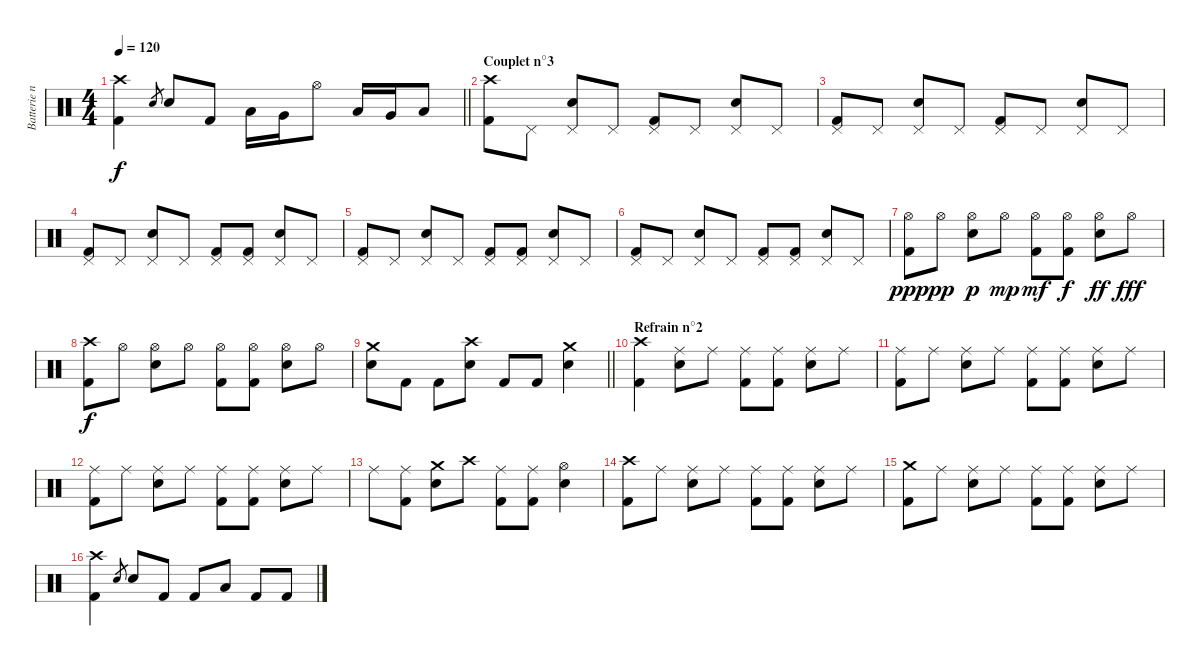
\track ("Batterie n°3" "Batterie n") {instrument percussion}
\staff {score}
\articulation defaults
\ts (4 4)
\tempo 120
\clef neutral
\barLineRight lightlight
\ks c
("Crash high (hit)" "Kick (hit) 2").4{dy f} "Electric Snare (hit)".8{gr} "Snare (hit) 2".8 "Kick (hit) 2".8 "Low Tom (hit)".16 "Very Low Tom (hit)".16 "Hi-Hat (open)".8 "Low Tom (hit)".16 "Very Low Tom (hit)".16 "Low Floor Tom (hit)".8 |
\section ("" "Couplet n°3")
("Crash high (hit)" "Kick (hit) 2").8 "Pedal Hi-Hat (hit)".8 ("Pedal Hi-Hat (hit)" "Snare (hit) 2").8 "Pedal Hi-Hat (hit)".8 ("Pedal Hi-Hat (hit)" "Kick (hit) 2").8 "Pedal Hi-Hat (hit)".8 ("Pedal Hi-Hat (hit)" "Snare (hit) 2").8 "Pedal Hi-Hat (hit)".8 |
("Pedal Hi-Hat (hit)" "Kick (hit) 2").8 "Pedal Hi-Hat (hit)".8 ("Pedal Hi-Hat (hit)" "Snare (hit) 2").8 "Pedal Hi-Hat (hit)".8 ("Pedal Hi-Hat (hit)" "Kick (hit) 2").8 "Pedal Hi-Hat (hit)".8 ("Pedal Hi-Hat (hit)" "Snare (hit) 2").8 "Pedal Hi-Hat (hit)".8 |
("Pedal Hi-Hat (hit)" "Kick (hit) 2").8 "Pedal Hi-Hat (hit)".8 ("Pedal Hi-Hat (hit)" "Snare (hit) 2").8 "Pedal Hi-Hat (hit)".8 ("Pedal Hi-Hat (hit)" "Kick (hit) 2").8 ("Pedal Hi-Hat (hit)" "Kick (hit) 2").8 ("Pedal Hi-Hat (hit)" "Snare (hit) 2").8 "Pedal Hi-Hat (hit)".8 |
("Pedal Hi-Hat (hit)" "Kick (hit) 2").8 "Pedal Hi-Hat (hit)".8 ("Pedal Hi-Hat (hit)" "Snare (hit) 2").8 "Pedal Hi-Hat (hit)".8 ("Pedal Hi-Hat (hit)" "Kick (hit) 2").8 ("Pedal Hi-Hat (hit)" "Kick (hit) 2").8 ("Pedal Hi-Hat (hit)" "Snare (hit) 2").8 "Pedal Hi-Hat (hit)".8 |
("Pedal Hi-Hat (hit)" "Kick (hit) 2").8 "Pedal Hi-Hat (hit)".8 ("Pedal Hi-Hat (hit)" "Snare (hit) 2").8 "Pedal Hi-Hat (hit)".8 ("Pedal Hi-Hat (hit)" "Kick (hit) 2").8 ("Pedal Hi-Hat (hit)" "Kick (hit) 2").8 ("Pedal Hi-Hat (hit)" "Snare (hit) 2").8 "Pedal Hi-Hat (hit)".8 |
("Hi-Hat (open)" "Kick (hit) 2").8{dy ppp} "Hi-Hat (open)".8{dy pp} ("Hi-Hat (open)" "Snare (hit) 2").8{dy p} "Hi-Hat (open)".8{dy mp} ("Hi-Hat (open)" "Kick (hit) 2").8{dy mf} ("Hi-Hat (open)" "Kick (hit) 2").8{dy f} ("Hi-Hat (open)" "Snare (hit) 2").8{dy ff} "Hi-Hat (open)".8{dy fff} |
("Crash high (hit)" "Kick (hit) 2").8{dy f} "Hi-Hat (open)".8 ("Hi-Hat (open)" "Snare (hit) 2").8 "Hi-Hat (open)".8 ("Hi-Hat (open)" "Kick (hit) 2").8 ("Hi-Hat (open)" "Kick (hit) 2").8 ("Hi-Hat (open)" "Snare (hit) 2").8 "Hi-Hat (open)".8 |
\barLineRight lightlight
("Crash medium (hit)" "Snare (hit) 2").8 "Kick (hit) 2".8 "Kick (hit) 2".8 ("Crash high (hit)" "Snare (hit) 2").8 "Kick (hit) 2".8 "Kick (hit) 2".8 ("Crash medium (hit)" "Snare (hit) 2").4 |
\section ("" "Refrain n°2")
("Crash high (hit)" "Kick (hit) 2").4 ("Ride (middle)" "Snare (hit) 2").8 "Ride (middle)".8 ("Ride (middle)" "Kick (hit) 2").8 ("Ride (middle)" "Kick (hit) 2").8 ("Ride (middle)" "Snare (hit) 2").8 "Ride (middle)".8 |
("Ride (middle)" "Kick (hit) 2").8 "Ride (middle)".8 ("Ride (middle)" "Snare (hit) 2").8 "Ride (middle)".8 ("Ride (middle)" "Kick (hit) 2").8 ("Ride (middle)" "Kick (hit) 2").8 ("Ride (middle)" "Snare (hit) 2").8 "Ride (middle)".8 |
("Ride (middle)" "Kick (hit) 2").8 "Ride (middle)".8 ("Ride (middle)" "Snare (hit) 2").8 "Ride (middle)".8 ("Ride (middle)" "Kick (hit) 2").8 ("Ride (middle)" "Kick (hit) 2").8 ("Ride (middle)" "Snare (hit) 2").8 "Ride (middle)".8 |
"Ride (middle)".8 ("Ride (middle)" "Kick (hit) 2").8 ("Crash medium (hit)" "Snare (hit) 2").8 "Crash high (hit)".8 ("Ride (middle)" "Kick (hit) 2").8 ("Ride (middle)" "Kick (hit) 2").8 ("Hi-Hat (open)" "Snare (hit) 2").4 |
("Crash high (hit)" "Kick (hit) 2").8 "Ride (middle)".8 ("Ride (middle)" "Snare (hit) 2").8 "Ride (middle)".8 ("Ride (middle)" "Kick (hit) 2").8 ("Ride (middle)" "Kick (hit) 2").8 ("Ride (middle)" "Snare (hit) 2").8 "Ride (middle)".8 |
("Crash medium (hit)" "Kick (hit) 2").8 "Ride (middle)".8 ("Ride (middle)" "Snare (hit) 2").8 "Ride (middle)".8 ("Ride (middle)" "Kick (hit) 2").8 ("Ride (middle)" "Kick (hit) 2").8 ("Ride (middle)" "Snare (hit) 2").8 "Ride (middle)".8 |
("Crash high (hit)" "Kick (hit) 2").4 "Electric Snare (hit)".8{gr} "Snare (hit) 2".8 "Kick (hit) 2".8 "Kick (hit) 2".8 "Low Floor Tom (hit)".8 "Kick (hit) 2".8 "Kick (hit) 2".8
